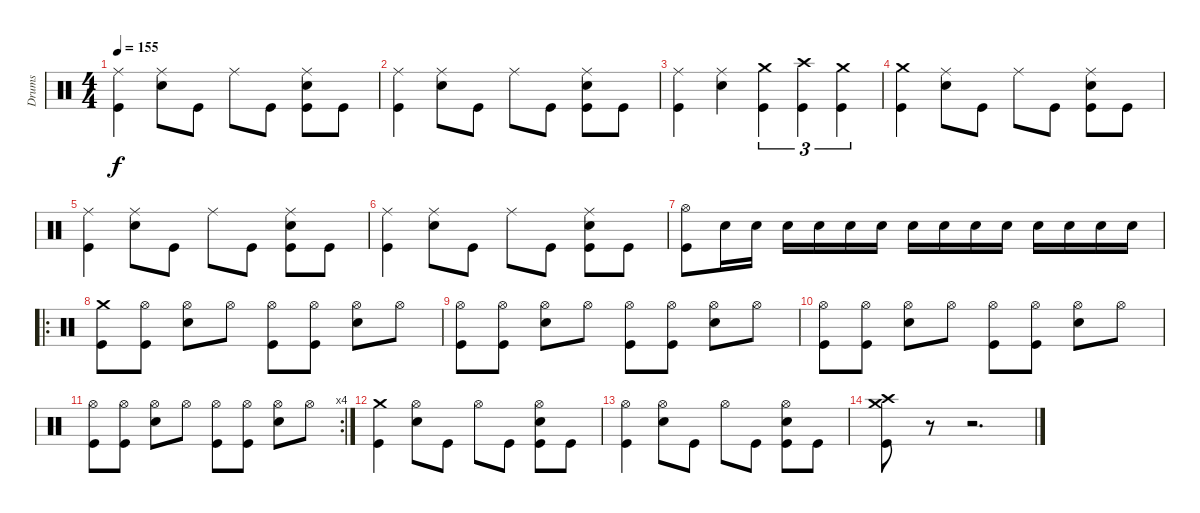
\track ("Drums" "Drums") {instrument percussion}
\staff {score}
\articulation defaults
\ts (4 4)
\tempo 155
\clef neutral
\ks c
("Ride (middle)" "Kick (hit)").4{dy f} ("Ride (middle)" "Snare (hit) 2").8 "Kick (hit)".8 "Ride (middle)".8 "Kick (hit)".8 ("Ride (middle)" "Snare (hit) 2" "Kick (hit)").8 "Kick (hit)".8 |
("Ride (middle)" "Kick (hit)").4 ("Ride (middle)" "Snare (hit) 2").8 "Kick (hit)".8 "Ride (middle)".8 "Kick (hit)".8 ("Ride (middle)" "Snare (hit) 2" "Kick (hit)").8 "Kick (hit)".8 |
("Ride (middle)" "Kick (hit)").4 ("Ride (middle)" "Snare (hit) 2").4 ("Crash medium (hit)" "Kick (hit)").4{tu (3 2)} ("Crash high (hit)" "Kick (hit)").4{tu (3 2)} ("Crash medium (hit)" "Kick (hit)").4{tu (3 2)} |
("Crash medium (hit)" "Kick (hit)").4 ("Ride (middle)" "Snare (hit) 2").8 "Kick (hit)".8 "Ride (middle)".8 "Kick (hit)".8 ("Ride (middle)" "Snare (hit) 2" "Kick (hit)").8 "Kick (hit)".8 |
("Ride (middle)" "Kick (hit)").4 ("Ride (middle)" "Snare (hit) 2").8 "Kick (hit)".8 "Ride (middle)".8 "Kick (hit)".8 ("Ride (middle)" "Snare (hit) 2" "Kick (hit)").8 "Kick (hit)".8 |
("Ride (middle)" "Kick (hit)").4 ("Ride (middle)" "Snare (hit) 2").8 "Kick (hit)".8 "Ride (middle)".8 "Kick (hit)".8 ("Ride (middle)" "Snare (hit) 2" "Kick (hit)").8 "Kick (hit)".8 |
("Hi-Hat (open)" "Kick (hit)").8 "Snare (hit) 2".16 "Snare (hit) 2".16 "Snare (hit) 2".16 "Snare (hit) 2".16 "Snare (hit) 2".16 "Snare (hit) 2".16 "Snare (hit) 2".16 "Snare (hit) 2".16 "Snare (hit) 2".16 "Snare (hit) 2".16 "Snare (hit) 2".16 "Snare (hit) 2".16 "Snare (hit) 2".16 "Snare (hit) 2".16 |
\ro
("Crash medium (hit)" "Kick (hit)").8 ("Hi-Hat (open)" "Kick (hit)").8 ("Hi-Hat (open)" "Snare (hit) 2").8 "Hi-Hat (open)".8 ("Hi-Hat (open)" "Kick (hit)").8 ("Hi-Hat (open)" "Kick (hit)").8 ("Hi-Hat (open)" "Snare (hit) 2").8 "Hi-Hat (open)".8 |
("Hi-Hat (open)" "Kick (hit)").8 ("Hi-Hat (open)" "Kick (hit)").8 ("Hi-Hat (open)" "Snare (hit) 2").8 "Hi-Hat (open)".8 ("Hi-Hat (open)" "Kick (hit)").8 ("Hi-Hat (open)" "Kick (hit)").8 ("Hi-Hat (open)" "Snare (hit) 2").8 "Hi-Hat (open)".8 |
("Hi-Hat (open)" "Kick (hit)").8 ("Hi-Hat (open)" "Kick (hit)").8 ("Hi-Hat (open)" "Snare (hit) 2").8 "Hi-Hat (open)".8 ("Hi-Hat (open)" "Kick (hit)").8 ("Hi-Hat (open)" "Kick (hit)").8 ("Hi-Hat (open)" "Snare (hit) 2").8 "Hi-Hat (open)".8 |
\rc 4
("Hi-Hat (open)" "Kick (hit)").8 ("Hi-Hat (open)" "Kick (hit)").8 ("Hi-Hat (open)" "Snare (hit) 2").8 "Hi-Hat (open)".8 ("Hi-Hat (open)" "Kick (hit)").8 ("Hi-Hat (open)" "Kick (hit)").8 ("Hi-Hat (open)" "Snare (hit) 2").8 "Hi-Hat (open)".8 |
("Crash medium (hit)" "Kick (hit)").4 ("Hi-Hat (open)" "Snare (hit) 2").8 "Kick (hit)".8 "Hi-Hat (open)".8 "Kick (hit)".8 ("Hi-Hat (open)" "Snare (hit) 2" "Kick (hit)").8 "Kick (hit)".8 |
("Hi-Hat (open)" "Kick (hit)").4 ("Hi-Hat (open)" "Snare (hit) 2").8 "Kick (hit)".8 "Hi-Hat (open)".8 "Kick (hit)".8 ("Hi-Hat (open)" "Snare (hit) 2" "Kick (hit)").8 "Kick (hit)".8 |
("Crash high (hit)" "Crash medium (hit)" "Kick (hit)").8 r.8 r.2{d}
